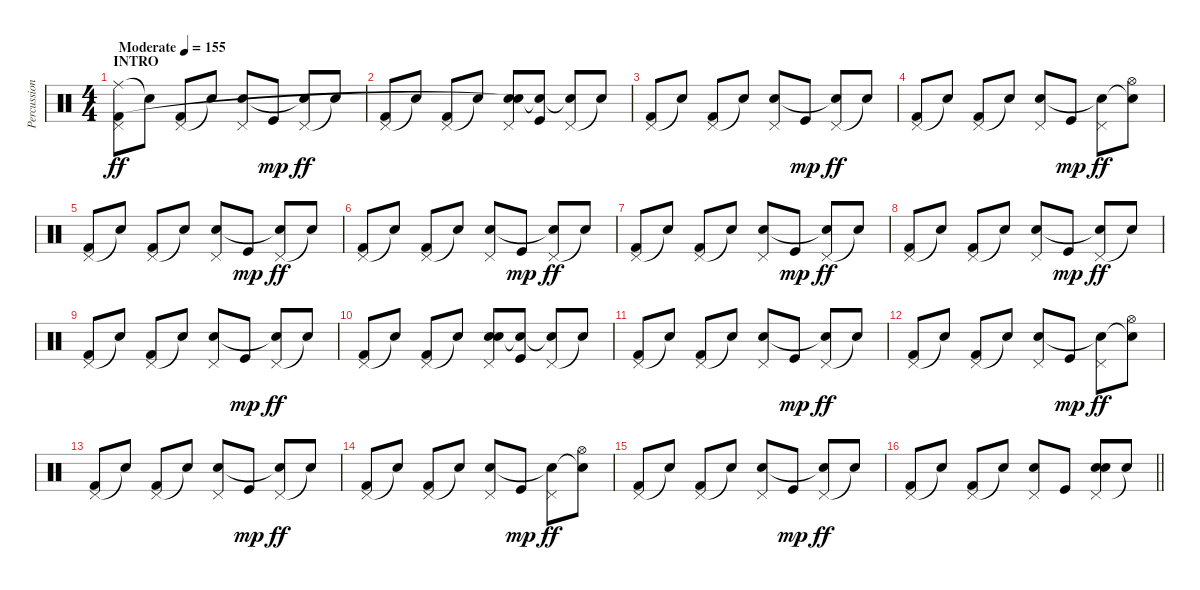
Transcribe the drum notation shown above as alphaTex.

\track ("Percussion" "Percussion") {instrument percussion}
\staff {score}
\articulation defaults
\ts (4 4)
\section ("" "INTRO")
\tempo (155 "Moderate")
\clef neutral
\ks c
("Ride (middle)" "Pedal Hi-Hat (hit)" "Kick (hit) 2").8{dy ff} "Snare (hit)"{t}.8 ("Pedal Hi-Hat (hit)" "Kick (hit) 2").8 "Snare (hit)"{t}.8 ("Pedal Hi-Hat (hit)" "Snare (hit) 2").8 "Kick (hit)".8{dy mp} ("Pedal Hi-Hat (hit)" "Snare (hit)"{t}).8{dy ff} "Snare (hit)"{t}.8 |
("Pedal Hi-Hat (hit)" "Kick (hit) 2").8 "Snare (hit)"{t}.8 ("Pedal Hi-Hat (hit)" "Kick (hit) 2").8 "Snare (hit)"{t}.8 ("Pedal Hi-Hat (hit)" "Snare (hit) 2" "Snare (hit)"{t}).8 ("Kick (hit)" "Snare (hit)"{t}).8 ("Pedal Hi-Hat (hit)" "Snare (hit)"{t}).8 "Snare (hit)"{t}.8 |
("Pedal Hi-Hat (hit)" "Kick (hit) 2").8 "Snare (hit)"{t}.8 ("Pedal Hi-Hat (hit)" "Kick (hit) 2").8 "Snare (hit)"{t}.8 ("Pedal Hi-Hat (hit)" "Snare (hit) 2").8 "Kick (hit)".8{dy mp} ("Pedal Hi-Hat (hit)" "Snare (hit)"{t}).8{dy ff} "Snare (hit)"{t}.8 |
("Pedal Hi-Hat (hit)" "Kick (hit) 2").8 "Snare (hit)"{t}.8 ("Pedal Hi-Hat (hit)" "Kick (hit) 2").8 "Snare (hit)"{t}.8 ("Pedal Hi-Hat (hit)" "Snare (hit) 2").8 "Kick (hit)".8{dy mp} ("Pedal Hi-Hat (hit)" "Snare (hit)"{t}).8{dy ff} ("Hi-Hat (open)" "Snare (hit)"{t}).8 |
("Pedal Hi-Hat (hit)" "Kick (hit) 2").8 "Snare (hit)"{t}.8 ("Pedal Hi-Hat (hit)" "Kick (hit) 2").8 "Snare (hit)"{t}.8 ("Pedal Hi-Hat (hit)" "Snare (hit) 2").8 "Kick (hit)".8{dy mp} ("Pedal Hi-Hat (hit)" "Snare (hit)"{t}).8{dy ff} "Snare (hit)"{t}.8 |
("Pedal Hi-Hat (hit)" "Kick (hit) 2").8 "Snare (hit)"{t}.8 ("Pedal Hi-Hat (hit)" "Kick (hit) 2").8 "Snare (hit)"{t}.8 ("Pedal Hi-Hat (hit)" "Snare (hit) 2").8 "Kick (hit)".8{dy mp} ("Pedal Hi-Hat (hit)" "Snare (hit)"{t}).8{dy ff} "Snare (hit)"{t}.8 |
("Pedal Hi-Hat (hit)" "Kick (hit) 2").8 "Snare (hit)"{t}.8 ("Pedal Hi-Hat (hit)" "Kick (hit) 2").8 "Snare (hit)"{t}.8 ("Pedal Hi-Hat (hit)" "Snare (hit) 2").8 "Kick (hit)".8{dy mp} ("Pedal Hi-Hat (hit)" "Snare (hit)"{t}).8{dy ff} "Snare (hit)"{t}.8 |
("Pedal Hi-Hat (hit)" "Kick (hit) 2").8 "Snare (hit)"{t}.8 ("Pedal Hi-Hat (hit)" "Kick (hit) 2").8 "Snare (hit)"{t}.8 ("Pedal Hi-Hat (hit)" "Snare (hit) 2").8 "Kick (hit)".8{dy mp} ("Pedal Hi-Hat (hit)" "Snare (hit)"{t}).8{dy ff} "Snare (hit)"{t}.8 |
("Pedal Hi-Hat (hit)" "Kick (hit) 2").8 "Snare (hit)"{t}.8 ("Pedal Hi-Hat (hit)" "Kick (hit) 2").8 "Snare (hit)"{t}.8 ("Pedal Hi-Hat (hit)" "Snare (hit) 2").8 "Kick (hit)".8{dy mp} ("Pedal Hi-Hat (hit)" "Snare (hit)"{t}).8{dy ff} "Snare (hit)"{t}.8 |
("Pedal Hi-Hat (hit)" "Kick (hit) 2").8 "Snare (hit)"{t}.8 ("Pedal Hi-Hat (hit)" "Kick (hit) 2").8 "Snare (hit)"{t}.8 ("Pedal Hi-Hat (hit)" "Snare (hit) 2" "Snare (hit)").8 ("Kick (hit)" "Snare (hit)"{t}).8 ("Pedal Hi-Hat (hit)" "Snare (hit)"{t}).8 "Snare (hit)"{t}.8 |
("Pedal Hi-Hat (hit)" "Kick (hit) 2").8 "Snare (hit)"{t}.8 ("Pedal Hi-Hat (hit)" "Kick (hit) 2").8 "Snare (hit)"{t}.8 ("Pedal Hi-Hat (hit)" "Snare (hit) 2").8 "Kick (hit)".8{dy mp} ("Pedal Hi-Hat (hit)" "Snare (hit)"{t}).8{dy ff} "Snare (hit)"{t}.8 |
("Pedal Hi-Hat (hit)" "Kick (hit) 2").8 "Snare (hit)"{t}.8 ("Pedal Hi-Hat (hit)" "Kick (hit) 2").8 "Snare (hit)"{t}.8 ("Pedal Hi-Hat (hit)" "Snare (hit) 2").8 "Kick (hit)".8{dy mp} ("Pedal Hi-Hat (hit)" "Snare (hit)"{t}).8{dy ff} ("Hi-Hat (open)" "Snare (hit)"{t}).8 |
("Pedal Hi-Hat (hit)" "Kick (hit) 2").8 "Snare (hit)"{t}.8 ("Pedal Hi-Hat (hit)" "Kick (hit) 2").8 "Snare (hit)"{t}.8 ("Pedal Hi-Hat (hit)" "Snare (hit) 2").8 "Kick (hit)".8{dy mp} ("Pedal Hi-Hat (hit)" "Snare (hit)"{t}).8{dy ff} "Snare (hit)"{t}.8 |
("Pedal Hi-Hat (hit)" "Kick (hit) 2").8 "Snare (hit)"{t}.8 ("Pedal Hi-Hat (hit)" "Kick (hit) 2").8 "Snare (hit)"{t}.8 ("Pedal Hi-Hat (hit)" "Snare (hit) 2").8 "Kick (hit)".8{dy mp} ("Pedal Hi-Hat (hit)" "Snare (hit)"{t}).8{dy ff} ("Hi-Hat (open)" "Snare (hit)"{t}).8 |
("Pedal Hi-Hat (hit)" "Kick (hit) 2").8 "Snare (hit)"{t}.8 ("Pedal Hi-Hat (hit)" "Kick (hit) 2").8 "Snare (hit)"{t}.8 ("Pedal Hi-Hat (hit)" "Snare (hit) 2").8 "Kick (hit)".8{dy mp} ("Pedal Hi-Hat (hit)" "Snare (hit)"{t}).8{dy ff} "Snare (hit)"{t}.8 |
\barLineRight lightlight
("Pedal Hi-Hat (hit)" "Kick (hit) 2").8 "Snare (hit)"{t}.8 ("Pedal Hi-Hat (hit)" "Kick (hit) 2").8 "Snare (hit)"{t}.8 ("Pedal Hi-Hat (hit)" "Snare (hit) 2").8 "Kick (hit)".8 ("Pedal Hi-Hat (hit)" "Snare (hit) 2" "Snare (hit)").8 "Snare (hit)"{t}.8
